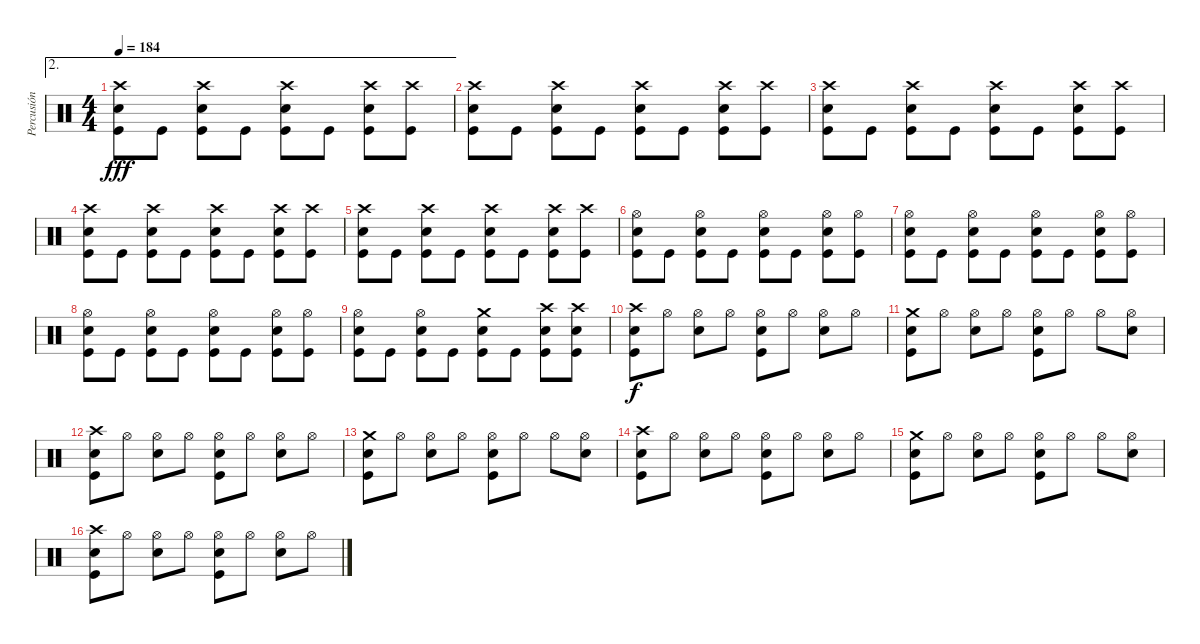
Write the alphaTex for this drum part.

\track ("Percusión" "Percusión") {instrument percussion}
\staff {score}
\articulation defaults
\ae 2
\ts (4 4)
\tempo 184
\clef neutral
\ks c
("Crash high (hit)" "Electric Snare (hit)" "Kick (hit)").8{dy fff} "Kick (hit)".8 ("Crash high (hit)" "Electric Snare (hit)" "Kick (hit)").8 "Kick (hit)".8 ("Crash high (hit)" "Electric Snare (hit)" "Kick (hit)").8 "Kick (hit)".8 ("Crash high (hit)" "Electric Snare (hit)" "Kick (hit)").8 ("Crash high (hit)" "Kick (hit)").8 |
("Crash high (hit)" "Electric Snare (hit)" "Kick (hit)").8 "Kick (hit)".8 ("Crash high (hit)" "Electric Snare (hit)" "Kick (hit)").8 "Kick (hit)".8 ("Crash high (hit)" "Electric Snare (hit)" "Kick (hit)").8 "Kick (hit)".8 ("Crash high (hit)" "Electric Snare (hit)" "Kick (hit)").8 ("Crash high (hit)" "Kick (hit)").8 |
("Crash high (hit)" "Electric Snare (hit)" "Kick (hit)").8 "Kick (hit)".8 ("Crash high (hit)" "Electric Snare (hit)" "Kick (hit)").8 "Kick (hit)".8 ("Crash high (hit)" "Electric Snare (hit)" "Kick (hit)").8 "Kick (hit)".8 ("Crash high (hit)" "Electric Snare (hit)" "Kick (hit)").8 ("Crash high (hit)" "Kick (hit)").8 |
("Crash high (hit)" "Electric Snare (hit)" "Kick (hit)").8 "Kick (hit)".8 ("Crash high (hit)" "Electric Snare (hit)" "Kick (hit)").8 "Kick (hit)".8 ("Crash high (hit)" "Electric Snare (hit)" "Kick (hit)").8 "Kick (hit)".8 ("Crash high (hit)" "Electric Snare (hit)" "Kick (hit)").8 ("Crash high (hit)" "Kick (hit)").8 |
("Crash high (hit)" "Electric Snare (hit)" "Kick (hit)").8 "Kick (hit)".8 ("Crash high (hit)" "Electric Snare (hit)" "Kick (hit)").8 "Kick (hit)".8 ("Crash high (hit)" "Electric Snare (hit)" "Kick (hit)").8 "Kick (hit)".8 ("Crash high (hit)" "Electric Snare (hit)" "Kick (hit)").8 ("Crash high (hit)" "Kick (hit)").8 |
("Hi-Hat (open)" "Electric Snare (hit)" "Kick (hit)").8 "Kick (hit)".8 ("Hi-Hat (open)" "Electric Snare (hit)" "Kick (hit)").8 "Kick (hit)".8 ("Hi-Hat (open)" "Electric Snare (hit)" "Kick (hit)").8 "Kick (hit)".8 ("Hi-Hat (open)" "Electric Snare (hit)" "Kick (hit)").8 ("Hi-Hat (open)" "Kick (hit)").8 |
("Hi-Hat (open)" "Electric Snare (hit)" "Kick (hit)").8 "Kick (hit)".8 ("Hi-Hat (open)" "Electric Snare (hit)" "Kick (hit)").8 "Kick (hit)".8 ("Hi-Hat (open)" "Electric Snare (hit)" "Kick (hit)").8 "Kick (hit)".8 ("Hi-Hat (open)" "Electric Snare (hit)" "Kick (hit)").8 ("Hi-Hat (open)" "Kick (hit)").8 |
("Hi-Hat (open)" "Electric Snare (hit)" "Kick (hit)").8 "Kick (hit)".8 ("Hi-Hat (open)" "Electric Snare (hit)" "Kick (hit)").8 "Kick (hit)".8 ("Hi-Hat (open)" "Electric Snare (hit)" "Kick (hit)").8 "Kick (hit)".8 ("Hi-Hat (open)" "Electric Snare (hit)" "Kick (hit)").8 ("Hi-Hat (open)" "Kick (hit)").8 |
("Hi-Hat (open)" "Electric Snare (hit)" "Kick (hit)").8 "Kick (hit)".8 ("Hi-Hat (open)" "Electric Snare (hit)" "Kick (hit)").8 "Kick (hit)".8 ("Crash medium (hit)" "Electric Snare (hit)" "Kick (hit)").8 "Kick (hit)".8 ("Crash high (hit)" "Electric Snare (hit)" "Kick (hit)").8 ("Crash high (hit)" "Electric Snare (hit)" "Kick (hit)").8 |
("Crash high (hit)" "Electric Snare (hit)" "Kick (hit)").8{dy f} "Hi-Hat (open)".8 ("Hi-Hat (open)" "Electric Snare (hit)").8 "Hi-Hat (open)".8 ("Hi-Hat (open)" "Electric Snare (hit)" "Kick (hit)").8 "Hi-Hat (open)".8 ("Hi-Hat (open)" "Electric Snare (hit)").8 "Hi-Hat (open)".8 |
("Crash medium (hit)" "Electric Snare (hit)" "Kick (hit)").8 "Hi-Hat (open)".8 ("Hi-Hat (open)" "Electric Snare (hit)").8 "Hi-Hat (open)".8 ("Hi-Hat (open)" "Electric Snare (hit)" "Kick (hit)").8 "Hi-Hat (open)".8 "Hi-Hat (open)".8 ("Hi-Hat (open)" "Electric Snare (hit)").8 |
("Crash high (hit)" "Electric Snare (hit)" "Kick (hit)").8 "Hi-Hat (open)".8 ("Hi-Hat (open)" "Electric Snare (hit)").8 "Hi-Hat (open)".8 ("Hi-Hat (open)" "Electric Snare (hit)" "Kick (hit)").8 "Hi-Hat (open)".8 ("Hi-Hat (open)" "Electric Snare (hit)").8 "Hi-Hat (open)".8 |
("Crash medium (hit)" "Electric Snare (hit)" "Kick (hit)").8 "Hi-Hat (open)".8 ("Hi-Hat (open)" "Electric Snare (hit)").8 "Hi-Hat (open)".8 ("Hi-Hat (open)" "Electric Snare (hit)" "Kick (hit)").8 "Hi-Hat (open)".8 "Hi-Hat (open)".8 ("Hi-Hat (open)" "Electric Snare (hit)").8 |
("Crash high (hit)" "Electric Snare (hit)" "Kick (hit)").8 "Hi-Hat (open)".8 ("Hi-Hat (open)" "Electric Snare (hit)").8 "Hi-Hat (open)".8 ("Hi-Hat (open)" "Electric Snare (hit)" "Kick (hit)").8 "Hi-Hat (open)".8 ("Hi-Hat (open)" "Electric Snare (hit)").8 "Hi-Hat (open)".8 |
("Crash medium (hit)" "Electric Snare (hit)" "Kick (hit)").8 "Hi-Hat (open)".8 ("Hi-Hat (open)" "Electric Snare (hit)").8 "Hi-Hat (open)".8 ("Hi-Hat (open)" "Electric Snare (hit)" "Kick (hit)").8 "Hi-Hat (open)".8 "Hi-Hat (open)".8 ("Hi-Hat (open)" "Electric Snare (hit)").8 |
("Crash high (hit)" "Electric Snare (hit)" "Kick (hit)").8 "Hi-Hat (open)".8 ("Hi-Hat (open)" "Electric Snare (hit)").8 "Hi-Hat (open)".8 ("Hi-Hat (open)" "Electric Snare (hit)" "Kick (hit)").8 "Hi-Hat (open)".8 ("Hi-Hat (open)" "Electric Snare (hit)").8 "Hi-Hat (open)".8
